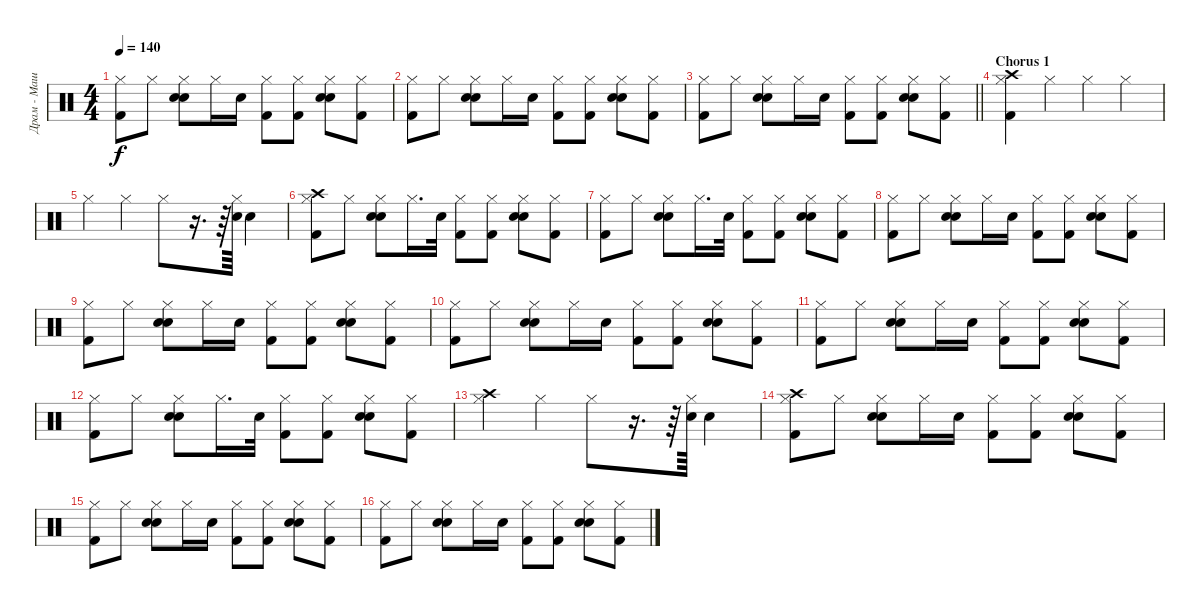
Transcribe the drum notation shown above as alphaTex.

\track ("Драм - Машина" "Драм - Маш") {instrument percussion}
\staff {score}
\articulation defaults
\ts (4 4)
\tempo 140
\clef neutral
\ks c
("Kick (hit) 2" "Hi-Hat (closed)").8{dy f} "Hi-Hat (closed)".8 ("Hand Clap (hit)" "Snare (hit) 2" "Hi-Hat (closed)").8 "Hi-Hat (closed)".16 "Snare (hit) 2".16 ("Kick (hit) 2" "Hi-Hat (closed)").8 ("Hi-Hat (closed)" "Kick (hit) 2").8 ("Hand Clap (hit)" "Snare (hit) 2" "Hi-Hat (closed)").8 ("Hi-Hat (closed)" "Kick (hit) 2").8 |
("Kick (hit) 2" "Hi-Hat (closed)").8 "Hi-Hat (closed)".8 ("Hand Clap (hit)" "Snare (hit) 2" "Hi-Hat (closed)").8 "Hi-Hat (closed)".16 "Snare (hit) 2".16 ("Kick (hit) 2" "Hi-Hat (closed)").8 ("Hi-Hat (closed)" "Kick (hit) 2").8 ("Hand Clap (hit)" "Snare (hit) 2" "Hi-Hat (closed)").8 ("Hi-Hat (closed)" "Kick (hit) 2").8 |
\barLineRight lightlight
("Kick (hit) 2" "Hi-Hat (closed)").8 "Hi-Hat (closed)".8 ("Hand Clap (hit)" "Snare (hit) 2" "Hi-Hat (closed)").8 "Hi-Hat (closed)".16 "Snare (hit) 2".16 ("Kick (hit) 2" "Hi-Hat (closed)").8 ("Hi-Hat (closed)" "Kick (hit) 2").8 ("Hand Clap (hit)" "Snare (hit) 2" "Hi-Hat (closed)").8 ("Hi-Hat (closed)" "Kick (hit) 2").8 |
\section ("" "Chorus 1")
("Crash high (hit)" "Kick (hit) 2" "Hi-Hat (closed)").4 "Hi-Hat (closed)".4 "Hi-Hat (closed)".4 "Hi-Hat (closed)".4 |
"Hi-Hat (closed)".4 "Hi-Hat (closed)".4 "Hi-Hat (closed)".8 r.16{d} r.64 ("Snare (hit) 2" "Hi-Hat (closed)").64 "Electric Snare (hit)".4 |
("Kick (hit) 2" "Crash high (hit)" "Hi-Hat (closed)").8 "Hi-Hat (closed)".8 ("Hand Clap (hit)" "Snare (hit) 2" "Hi-Hat (closed)").8 "Hi-Hat (closed)".16{d} "Snare (hit) 2".32 ("Kick (hit) 2" "Hi-Hat (closed)").8 ("Hi-Hat (closed)" "Kick (hit) 2").8 ("Hand Clap (hit)" "Snare (hit) 2" "Hi-Hat (closed)").8 ("Hi-Hat (closed)" "Kick (hit) 2").8 |
("Kick (hit) 2" "Hi-Hat (closed)").8 "Hi-Hat (closed)".8 ("Hand Clap (hit)" "Snare (hit) 2" "Hi-Hat (closed)").8 "Hi-Hat (closed)".16{d} "Snare (hit) 2".32 ("Kick (hit) 2" "Hi-Hat (closed)").8 ("Hi-Hat (closed)" "Kick (hit) 2").8 ("Hand Clap (hit)" "Snare (hit) 2" "Hi-Hat (closed)").8 ("Hi-Hat (closed)" "Kick (hit) 2").8 |
("Kick (hit) 2" "Hi-Hat (closed)").8 "Hi-Hat (closed)".8 ("Hand Clap (hit)" "Snare (hit) 2" "Hi-Hat (closed)").8 "Hi-Hat (closed)".16 "Snare (hit) 2".16 ("Kick (hit) 2" "Hi-Hat (closed)").8 ("Hi-Hat (closed)" "Kick (hit) 2").8 ("Hand Clap (hit)" "Snare (hit) 2" "Hi-Hat (closed)").8 ("Hi-Hat (closed)" "Kick (hit) 2").8 |
("Kick (hit) 2" "Hi-Hat (closed)").8 "Hi-Hat (closed)".8 ("Hand Clap (hit)" "Snare (hit) 2" "Hi-Hat (closed)").8 "Hi-Hat (closed)".16 "Snare (hit) 2".16 ("Kick (hit) 2" "Hi-Hat (closed)").8 ("Hi-Hat (closed)" "Kick (hit) 2").8 ("Hand Clap (hit)" "Snare (hit) 2" "Hi-Hat (closed)").8 ("Hi-Hat (closed)" "Kick (hit) 2").8 |
("Kick (hit) 2" "Hi-Hat (closed)").8 "Hi-Hat (closed)".8 ("Hand Clap (hit)" "Snare (hit) 2" "Hi-Hat (closed)").8 "Hi-Hat (closed)".16 "Snare (hit) 2".16 ("Kick (hit) 2" "Hi-Hat (closed)").8 ("Hi-Hat (closed)" "Kick (hit) 2").8 ("Hand Clap (hit)" "Snare (hit) 2" "Hi-Hat (closed)").8 ("Hi-Hat (closed)" "Kick (hit) 2").8 |
("Kick (hit) 2" "Hi-Hat (closed)").8 "Hi-Hat (closed)".8 ("Hand Clap (hit)" "Snare (hit) 2" "Hi-Hat (closed)").8 "Hi-Hat (closed)".16 "Snare (hit) 2".16 ("Kick (hit) 2" "Hi-Hat (closed)").8 ("Hi-Hat (closed)" "Kick (hit) 2").8 ("Hand Clap (hit)" "Snare (hit) 2" "Hi-Hat (closed)").8 ("Hi-Hat (closed)" "Kick (hit) 2").8 |
("Kick (hit) 2" "Hi-Hat (closed)").8 "Hi-Hat (closed)".8 ("Hand Clap (hit)" "Snare (hit) 2" "Hi-Hat (closed)").8 "Hi-Hat (closed)".16{d} "Snare (hit) 2".32 ("Kick (hit) 2" "Hi-Hat (closed)").8 ("Hi-Hat (closed)" "Kick (hit) 2").8 ("Hand Clap (hit)" "Snare (hit) 2" "Hi-Hat (closed)").8 ("Hi-Hat (closed)" "Kick (hit) 2").8 |
("Crash high (hit)" "Hi-Hat (closed)").4 "Hi-Hat (closed)".4 "Hi-Hat (closed)".8 r.16{d} r.64 ("Snare (hit) 2" "Hi-Hat (closed)").64 "Electric Snare (hit)".4 |
("Kick (hit) 2" "Hi-Hat (closed)" "Crash high (hit)").8 "Hi-Hat (closed)".8 ("Hand Clap (hit)" "Snare (hit) 2" "Hi-Hat (closed)").8 "Hi-Hat (closed)".16 "Snare (hit) 2".16 ("Kick (hit) 2" "Hi-Hat (closed)").8 ("Hi-Hat (closed)" "Kick (hit) 2").8 ("Hand Clap (hit)" "Snare (hit) 2" "Hi-Hat (closed)").8 ("Hi-Hat (closed)" "Kick (hit) 2").8 |
("Kick (hit) 2" "Hi-Hat (closed)").8 "Hi-Hat (closed)".8 ("Hand Clap (hit)" "Snare (hit) 2" "Hi-Hat (closed)").8 "Hi-Hat (closed)".16 "Snare (hit) 2".16 ("Kick (hit) 2" "Hi-Hat (closed)").8 ("Hi-Hat (closed)" "Kick (hit) 2").8 ("Hand Clap (hit)" "Snare (hit) 2" "Hi-Hat (closed)").8 ("Hi-Hat (closed)" "Kick (hit) 2").8 |
("Kick (hit) 2" "Hi-Hat (closed)").8 "Hi-Hat (closed)".8 ("Hand Clap (hit)" "Snare (hit) 2" "Hi-Hat (closed)").8 "Hi-Hat (closed)".16 "Snare (hit) 2".16 ("Kick (hit) 2" "Hi-Hat (closed)").8 ("Hi-Hat (closed)" "Kick (hit) 2").8 ("Hand Clap (hit)" "Snare (hit) 2" "Hi-Hat (closed)").8 ("Hi-Hat (closed)" "Kick (hit) 2").8
